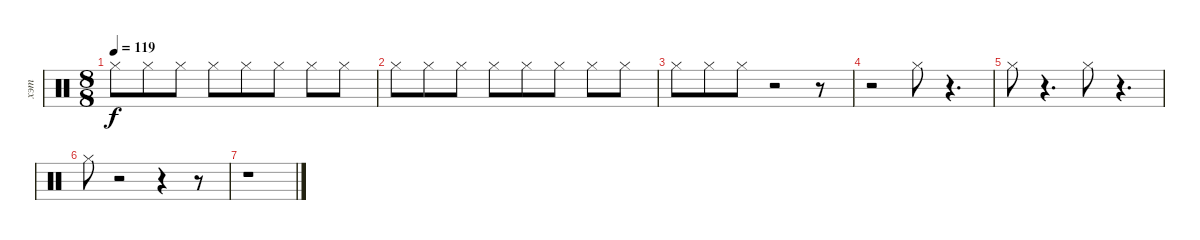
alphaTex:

\track ("хэт" "хэт") {instrument percussion}
\staff {score}
\articulation defaults
\ts (8 8)
\tempo 119
\clef neutral
\ks c "Hi-Hat (closed)".8{dy f} "Hi-Hat (closed)".8 "Hi-Hat (closed)".8 "Hi-Hat (closed)".8 "Hi-Hat (closed)".8 "Hi-Hat (closed)".8 "Hi-Hat (closed)".8 "Hi-Hat (closed)".8
|
"Hi-Hat (closed)".8 "Hi-Hat (closed)".8 "Hi-Hat (closed)".8 "Hi-Hat (closed)".8 "Hi-Hat (closed)".8 "Hi-Hat (closed)".8 "Hi-Hat (closed)".8 "Hi-Hat (closed)".8 |
"Hi-Hat (closed)".8 "Hi-Hat (closed)".8 "Hi-Hat (closed)".8 r.2 r.8 |
r.2 "Hi-Hat (closed)".8 r.4{d} |
"Hi-Hat (closed)".8 r.4{d} "Hi-Hat (closed)".8 r.4{d} |
"Hi-Hat (closed)".8 r.2 r.4 r.8 |
r.1
